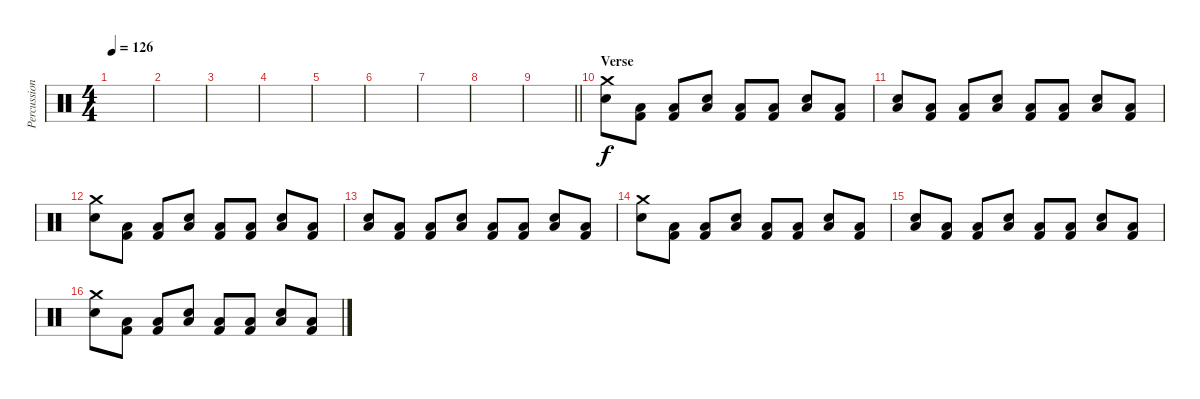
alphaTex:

\track ("Percussion" "Percussion") {instrument percussion}
\staff {score}
\articulation defaults
\ts (4 4)
\tempo 126
\clef neutral
\ks c
|
|
|
|
|
|
|
|
\barLineRight lightlight
|
\section ("" "Verse")
("Crash medium (hit)" "Snare (hit) 2").8 ("Low Floor Tom (hit)" "Kick (hit) 2").8 ("Low Floor Tom (hit)" "Kick (hit) 2").8 ("Snare (hit) 2" "Low Floor Tom (hit)").8 ("Low Floor Tom (hit)" "Kick (hit) 2").8 ("Low Floor Tom (hit)" "Kick (hit) 2").8 ("Snare (hit) 2" "Low Floor Tom (hit)").8 ("Low Floor Tom (hit)" "Kick (hit) 2").8 |
("Snare (hit) 2" "Low Floor Tom (hit)").8 ("Low Floor Tom (hit)" "Kick (hit) 2").8 ("Low Floor Tom (hit)" "Kick (hit) 2").8 ("Snare (hit) 2" "Low Floor Tom (hit)").8 ("Low Floor Tom (hit)" "Kick (hit) 2").8 ("Low Floor Tom (hit)" "Kick (hit) 2").8 ("Snare (hit) 2" "Low Floor Tom (hit)").8 ("Low Floor Tom (hit)" "Kick (hit) 2").8 |
("Crash medium (hit)" "Snare (hit) 2").8 ("Low Floor Tom (hit)" "Kick (hit) 2").8 ("Low Floor Tom (hit)" "Kick (hit) 2").8 ("Snare (hit) 2" "Low Floor Tom (hit)").8 ("Low Floor Tom (hit)" "Kick (hit) 2").8 ("Low Floor Tom (hit)" "Kick (hit) 2").8 ("Snare (hit) 2" "Low Floor Tom (hit)").8 ("Low Floor Tom (hit)" "Kick (hit) 2").8 |
("Snare (hit) 2" "Low Floor Tom (hit)").8 ("Low Floor Tom (hit)" "Kick (hit) 2").8 ("Low Floor Tom (hit)" "Kick (hit) 2").8 ("Snare (hit) 2" "Low Floor Tom (hit)").8 ("Low Floor Tom (hit)" "Kick (hit) 2").8 ("Low Floor Tom (hit)" "Kick (hit) 2").8 ("Snare (hit) 2" "Low Floor Tom (hit)").8 ("Low Floor Tom (hit)" "Kick (hit) 2").8 |
("Crash medium (hit)" "Snare (hit) 2").8 ("Low Floor Tom (hit)" "Kick (hit) 2").8 ("Low Floor Tom (hit)" "Kick (hit) 2").8 ("Snare (hit) 2" "Low Floor Tom (hit)").8 ("Low Floor Tom (hit)" "Kick (hit) 2").8 ("Low Floor Tom (hit)" "Kick (hit) 2").8 ("Snare (hit) 2" "Low Floor Tom (hit)").8 ("Low Floor Tom (hit)" "Kick (hit) 2").8 |
("Snare (hit) 2" "Low Floor Tom (hit)").8 ("Low Floor Tom (hit)" "Kick (hit) 2").8 ("Low Floor Tom (hit)" "Kick (hit) 2").8 ("Snare (hit) 2" "Low Floor Tom (hit)").8 ("Low Floor Tom (hit)" "Kick (hit) 2").8 ("Low Floor Tom (hit)" "Kick (hit) 2").8 ("Snare (hit) 2" "Low Floor Tom (hit)").8 ("Low Floor Tom (hit)" "Kick (hit) 2").8 |
("Crash medium (hit)" "Snare (hit) 2").8 ("Low Floor Tom (hit)" "Kick (hit) 2").8 ("Low Floor Tom (hit)" "Kick (hit) 2").8 ("Snare (hit) 2" "Low Floor Tom (hit)").8 ("Low Floor Tom (hit)" "Kick (hit) 2").8 ("Low Floor Tom (hit)" "Kick (hit) 2").8 ("Snare (hit) 2" "Low Floor Tom (hit)").8 ("Low Floor Tom (hit)" "Kick (hit) 2").8
